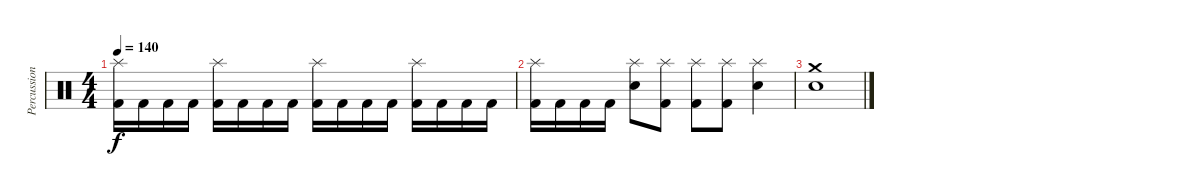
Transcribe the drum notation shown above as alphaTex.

\track ("Percussions" "Percussion") {instrument percussion}
\staff {score}
\articulation defaults
\ts (4 4)
\tempo 140
\clef neutral
\ks c
("Splash (hit)" "Kick (hit) 2").16{dy f} "Kick (hit) 2".16 "Kick (hit) 2".16 "Kick (hit) 2".16 ("Splash (hit)" "Kick (hit) 2").16 "Kick (hit) 2".16 "Kick (hit) 2".16 "Kick (hit) 2".16 ("Splash (hit)" "Kick (hit) 2").16 "Kick (hit) 2".16 "Kick (hit) 2".16 "Kick (hit) 2".16 ("Splash (hit)" "Kick (hit) 2").16 "Kick (hit) 2".16 "Kick (hit) 2".16 "Kick (hit) 2".16 |
("Splash (hit)" "Kick (hit) 2").16 "Kick (hit) 2".16 "Kick (hit) 2".16 "Kick (hit) 2".16 ("Electric Snare (hit)" "Splash (hit)").8 ("Kick (hit) 2" "Splash (hit)").8 ("Kick (hit) 2" "Splash (hit)").8 ("Kick (hit) 2" "Splash (hit)").8 ("Electric Snare (hit)" "Splash (hit)").4 |
("Electric Snare (hit)" "Crash medium (hit)").1
